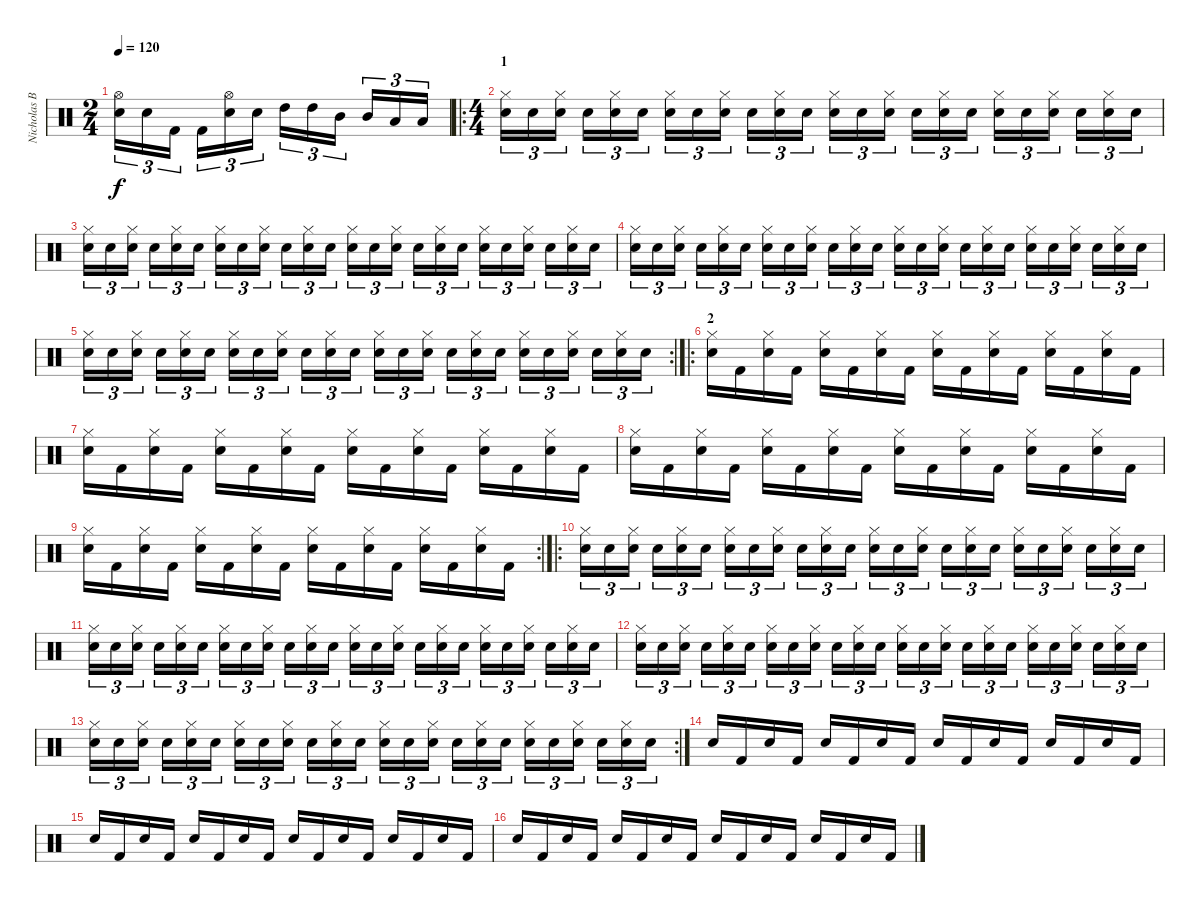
\track ("Nicholas Barker" "Nicholas B") {instrument percussion}
\staff {score}
\articulation defaults
\ts (2 4)
\tempo 120
\clef neutral
\ks c
("Snare (hit) 2" "Hi-Hat (open)").16{tu (3 2) dy f} "Snare (hit) 2".16{tu (3 2)} "Kick (hit) 2".16{tu (3 2)} "Kick (hit) 2".16{tu (3 2)} ("Snare (hit) 2" "Hi-Hat (open)").16{tu (3 2)} "Snare (hit) 2".16{tu (3 2)} "High Tom (hit)".16{tu (3 2)} "High Tom (hit)".16{tu (3 2)} "Mid Tom (hit)".16{tu (3 2)} "Mid Tom (hit)".16{tu (3 2)} "Low Tom (hit)".16{tu (3 2)} "Low Tom (hit)".16{tu (3 2)} |
\ro
\ts (4 4)
\section ("" "1")
("Snare (hit) 2" "Hi-Hat (closed)").16{tu (3 2)} "Snare (hit) 2".16{tu (3 2)} ("Snare (hit) 2" "Hi-Hat (closed)").16{tu (3 2)} "Snare (hit) 2".16{tu (3 2)} ("Snare (hit) 2" "Hi-Hat (closed)").16{tu (3 2)} "Snare (hit) 2".16{tu (3 2)} ("Snare (hit) 2" "Hi-Hat (closed)").16{tu (3 2)} "Snare (hit) 2".16{tu (3 2)} ("Snare (hit) 2" "Hi-Hat (closed)").16{tu (3 2)} "Snare (hit) 2".16{tu (3 2)} ("Snare (hit) 2" "Hi-Hat (closed)").16{tu (3 2)} "Snare (hit) 2".16{tu (3 2)} ("Snare (hit) 2" "Hi-Hat (closed)").16{tu (3 2)} "Snare (hit) 2".16{tu (3 2)} ("Snare (hit) 2" "Hi-Hat (closed)").16{tu (3 2)} "Snare (hit) 2".16{tu (3 2)} ("Snare (hit) 2" "Hi-Hat (closed)").16{tu (3 2)} "Snare (hit) 2".16{tu (3 2)} ("Snare (hit) 2" "Hi-Hat (closed)").16{tu (3 2)} "Snare (hit) 2".16{tu (3 2)} ("Snare (hit) 2" "Hi-Hat (closed)").16{tu (3 2)} "Snare (hit) 2".16{tu (3 2)} ("Snare (hit) 2" "Hi-Hat (closed)").16{tu (3 2)} "Snare (hit) 2".16{tu (3 2)} |
("Snare (hit) 2" "Hi-Hat (closed)").16{tu (3 2)} "Snare (hit) 2".16{tu (3 2)} ("Snare (hit) 2" "Hi-Hat (closed)").16{tu (3 2)} "Snare (hit) 2".16{tu (3 2)} ("Snare (hit) 2" "Hi-Hat (closed)").16{tu (3 2)} "Snare (hit) 2".16{tu (3 2)} ("Snare (hit) 2" "Hi-Hat (closed)").16{tu (3 2)} "Snare (hit) 2".16{tu (3 2)} ("Snare (hit) 2" "Hi-Hat (closed)").16{tu (3 2)} "Snare (hit) 2".16{tu (3 2)} ("Snare (hit) 2" "Hi-Hat (closed)").16{tu (3 2)} "Snare (hit) 2".16{tu (3 2)} ("Snare (hit) 2" "Hi-Hat (closed)").16{tu (3 2)} "Snare (hit) 2".16{tu (3 2)} ("Snare (hit) 2" "Hi-Hat (closed)").16{tu (3 2)} "Snare (hit) 2".16{tu (3 2)} ("Snare (hit) 2" "Hi-Hat (closed)").16{tu (3 2)} "Snare (hit) 2".16{tu (3 2)} ("Snare (hit) 2" "Hi-Hat (closed)").16{tu (3 2)} "Snare (hit) 2".16{tu (3 2)} ("Snare (hit) 2" "Hi-Hat (closed)").16{tu (3 2)} "Snare (hit) 2".16{tu (3 2)} ("Snare (hit) 2" "Hi-Hat (closed)").16{tu (3 2)} "Snare (hit) 2".16{tu (3 2)} |
("Snare (hit) 2" "Hi-Hat (closed)").16{tu (3 2)} "Snare (hit) 2".16{tu (3 2)} ("Snare (hit) 2" "Hi-Hat (closed)").16{tu (3 2)} "Snare (hit) 2".16{tu (3 2)} ("Snare (hit) 2" "Hi-Hat (closed)").16{tu (3 2)} "Snare (hit) 2".16{tu (3 2)} ("Snare (hit) 2" "Hi-Hat (closed)").16{tu (3 2)} "Snare (hit) 2".16{tu (3 2)} ("Snare (hit) 2" "Hi-Hat (closed)").16{tu (3 2)} "Snare (hit) 2".16{tu (3 2)} ("Snare (hit) 2" "Hi-Hat (closed)").16{tu (3 2)} "Snare (hit) 2".16{tu (3 2)} ("Snare (hit) 2" "Hi-Hat (closed)").16{tu (3 2)} "Snare (hit) 2".16{tu (3 2)} ("Snare (hit) 2" "Hi-Hat (closed)").16{tu (3 2)} "Snare (hit) 2".16{tu (3 2)} ("Snare (hit) 2" "Hi-Hat (closed)").16{tu (3 2)} "Snare (hit) 2".16{tu (3 2)} ("Snare (hit) 2" "Hi-Hat (closed)").16{tu (3 2)} "Snare (hit) 2".16{tu (3 2)} ("Snare (hit) 2" "Hi-Hat (closed)").16{tu (3 2)} "Snare (hit) 2".16{tu (3 2)} ("Snare (hit) 2" "Hi-Hat (closed)").16{tu (3 2)} "Snare (hit) 2".16{tu (3 2)} |
\rc 2
("Snare (hit) 2" "Hi-Hat (closed)").16{tu (3 2)} "Snare (hit) 2".16{tu (3 2)} ("Snare (hit) 2" "Hi-Hat (closed)").16{tu (3 2)} "Snare (hit) 2".16{tu (3 2)} ("Snare (hit) 2" "Hi-Hat (closed)").16{tu (3 2)} "Snare (hit) 2".16{tu (3 2)} ("Snare (hit) 2" "Hi-Hat (closed)").16{tu (3 2)} "Snare (hit) 2".16{tu (3 2)} ("Snare (hit) 2" "Hi-Hat (closed)").16{tu (3 2)} "Snare (hit) 2".16{tu (3 2)} ("Snare (hit) 2" "Hi-Hat (closed)").16{tu (3 2)} "Snare (hit) 2".16{tu (3 2)} ("Snare (hit) 2" "Hi-Hat (closed)").16{tu (3 2)} "Snare (hit) 2".16{tu (3 2)} ("Snare (hit) 2" "Hi-Hat (closed)").16{tu (3 2)} "Snare (hit) 2".16{tu (3 2)} ("Snare (hit) 2" "Hi-Hat (closed)").16{tu (3 2)} "Snare (hit) 2".16{tu (3 2)} ("Snare (hit) 2" "Hi-Hat (closed)").16{tu (3 2)} "Snare (hit) 2".16{tu (3 2)} ("Snare (hit) 2" "Hi-Hat (closed)").16{tu (3 2)} "Snare (hit) 2".16{tu (3 2)} ("Snare (hit) 2" "Hi-Hat (closed)").16{tu (3 2)} "Snare (hit) 2".16{tu (3 2)} |
\ro
\section ("" "2")
("Snare (hit) 2" "Hi-Hat (closed)").16 "Kick (hit) 2".16 ("Snare (hit) 2" "Hi-Hat (closed)").16 "Kick (hit) 2".16 ("Snare (hit) 2" "Hi-Hat (closed)").16 "Kick (hit) 2".16 ("Snare (hit) 2" "Hi-Hat (closed)").16 "Kick (hit) 2".16 ("Snare (hit) 2" "Hi-Hat (closed)").16 "Kick (hit) 2".16 ("Snare (hit) 2" "Hi-Hat (closed)").16 "Kick (hit) 2".16 ("Snare (hit) 2" "Hi-Hat (closed)").16 "Kick (hit) 2".16 ("Snare (hit) 2" "Hi-Hat (closed)").16 "Kick (hit) 2".16 |
("Snare (hit) 2" "Hi-Hat (closed)").16 "Kick (hit) 2".16 ("Snare (hit) 2" "Hi-Hat (closed)").16 "Kick (hit) 2".16 ("Snare (hit) 2" "Hi-Hat (closed)").16 "Kick (hit) 2".16 ("Snare (hit) 2" "Hi-Hat (closed)").16 "Kick (hit) 2".16 ("Snare (hit) 2" "Hi-Hat (closed)").16 "Kick (hit) 2".16 ("Snare (hit) 2" "Hi-Hat (closed)").16 "Kick (hit) 2".16 ("Snare (hit) 2" "Hi-Hat (closed)").16 "Kick (hit) 2".16 ("Snare (hit) 2" "Hi-Hat (closed)").16 "Kick (hit) 2".16 |
("Snare (hit) 2" "Hi-Hat (closed)").16 "Kick (hit) 2".16 ("Snare (hit) 2" "Hi-Hat (closed)").16 "Kick (hit) 2".16 ("Snare (hit) 2" "Hi-Hat (closed)").16 "Kick (hit) 2".16 ("Snare (hit) 2" "Hi-Hat (closed)").16 "Kick (hit) 2".16 ("Snare (hit) 2" "Hi-Hat (closed)").16 "Kick (hit) 2".16 ("Snare (hit) 2" "Hi-Hat (closed)").16 "Kick (hit) 2".16 ("Snare (hit) 2" "Hi-Hat (closed)").16 "Kick (hit) 2".16 ("Snare (hit) 2" "Hi-Hat (closed)").16 "Kick (hit) 2".16 |
\rc 2
("Snare (hit) 2" "Hi-Hat (closed)").16 "Kick (hit) 2".16 ("Snare (hit) 2" "Hi-Hat (closed)").16 "Kick (hit) 2".16 ("Snare (hit) 2" "Hi-Hat (closed)").16 "Kick (hit) 2".16 ("Snare (hit) 2" "Hi-Hat (closed)").16 "Kick (hit) 2".16 ("Snare (hit) 2" "Hi-Hat (closed)").16 "Kick (hit) 2".16 ("Snare (hit) 2" "Hi-Hat (closed)").16 "Kick (hit) 2".16 ("Snare (hit) 2" "Hi-Hat (closed)").16 "Kick (hit) 2".16 ("Snare (hit) 2" "Hi-Hat (closed)").16 "Kick (hit) 2".16 |
\ro
("Snare (hit) 2" "Hi-Hat (closed)").16{tu (3 2)} "Snare (hit) 2".16{tu (3 2)} ("Snare (hit) 2" "Hi-Hat (closed)").16{tu (3 2)} "Snare (hit) 2".16{tu (3 2)} ("Snare (hit) 2" "Hi-Hat (closed)").16{tu (3 2)} "Snare (hit) 2".16{tu (3 2)} ("Snare (hit) 2" "Hi-Hat (closed)").16{tu (3 2)} "Snare (hit) 2".16{tu (3 2)} ("Snare (hit) 2" "Hi-Hat (closed)").16{tu (3 2)} "Snare (hit) 2".16{tu (3 2)} ("Snare (hit) 2" "Hi-Hat (closed)").16{tu (3 2)} "Snare (hit) 2".16{tu (3 2)} ("Snare (hit) 2" "Hi-Hat (closed)").16{tu (3 2)} "Snare (hit) 2".16{tu (3 2)} ("Snare (hit) 2" "Hi-Hat (closed)").16{tu (3 2)} "Snare (hit) 2".16{tu (3 2)} ("Snare (hit) 2" "Hi-Hat (closed)").16{tu (3 2)} "Snare (hit) 2".16{tu (3 2)} ("Snare (hit) 2" "Hi-Hat (closed)").16{tu (3 2)} "Snare (hit) 2".16{tu (3 2)} ("Snare (hit) 2" "Hi-Hat (closed)").16{tu (3 2)} "Snare (hit) 2".16{tu (3 2)} ("Snare (hit) 2" "Hi-Hat (closed)").16{tu (3 2)} "Snare (hit) 2".16{tu (3 2)} |
("Snare (hit) 2" "Hi-Hat (closed)").16{tu (3 2)} "Snare (hit) 2".16{tu (3 2)} ("Snare (hit) 2" "Hi-Hat (closed)").16{tu (3 2)} "Snare (hit) 2".16{tu (3 2)} ("Snare (hit) 2" "Hi-Hat (closed)").16{tu (3 2)} "Snare (hit) 2".16{tu (3 2)} ("Snare (hit) 2" "Hi-Hat (closed)").16{tu (3 2)} "Snare (hit) 2".16{tu (3 2)} ("Snare (hit) 2" "Hi-Hat (closed)").16{tu (3 2)} "Snare (hit) 2".16{tu (3 2)} ("Snare (hit) 2" "Hi-Hat (closed)").16{tu (3 2)} "Snare (hit) 2".16{tu (3 2)} ("Snare (hit) 2" "Hi-Hat (closed)").16{tu (3 2)} "Snare (hit) 2".16{tu (3 2)} ("Snare (hit) 2" "Hi-Hat (closed)").16{tu (3 2)} "Snare (hit) 2".16{tu (3 2)} ("Snare (hit) 2" "Hi-Hat (closed)").16{tu (3 2)} "Snare (hit) 2".16{tu (3 2)} ("Snare (hit) 2" "Hi-Hat (closed)").16{tu (3 2)} "Snare (hit) 2".16{tu (3 2)} ("Snare (hit) 2" "Hi-Hat (closed)").16{tu (3 2)} "Snare (hit) 2".16{tu (3 2)} ("Snare (hit) 2" "Hi-Hat (closed)").16{tu (3 2)} "Snare (hit) 2".16{tu (3 2)} |
("Snare (hit) 2" "Hi-Hat (closed)").16{tu (3 2)} "Snare (hit) 2".16{tu (3 2)} ("Snare (hit) 2" "Hi-Hat (closed)").16{tu (3 2)} "Snare (hit) 2".16{tu (3 2)} ("Snare (hit) 2" "Hi-Hat (closed)").16{tu (3 2)} "Snare (hit) 2".16{tu (3 2)} ("Snare (hit) 2" "Hi-Hat (closed)").16{tu (3 2)} "Snare (hit) 2".16{tu (3 2)} ("Snare (hit) 2" "Hi-Hat (closed)").16{tu (3 2)} "Snare (hit) 2".16{tu (3 2)} ("Snare (hit) 2" "Hi-Hat (closed)").16{tu (3 2)} "Snare (hit) 2".16{tu (3 2)} ("Snare (hit) 2" "Hi-Hat (closed)").16{tu (3 2)} "Snare (hit) 2".16{tu (3 2)} ("Snare (hit) 2" "Hi-Hat (closed)").16{tu (3 2)} "Snare (hit) 2".16{tu (3 2)} ("Snare (hit) 2" "Hi-Hat (closed)").16{tu (3 2)} "Snare (hit) 2".16{tu (3 2)} ("Snare (hit) 2" "Hi-Hat (closed)").16{tu (3 2)} "Snare (hit) 2".16{tu (3 2)} ("Snare (hit) 2" "Hi-Hat (closed)").16{tu (3 2)} "Snare (hit) 2".16{tu (3 2)} ("Snare (hit) 2" "Hi-Hat (closed)").16{tu (3 2)} "Snare (hit) 2".16{tu (3 2)} |
\rc 2
("Snare (hit) 2" "Hi-Hat (closed)").16{tu (3 2)} "Snare (hit) 2".16{tu (3 2)} ("Snare (hit) 2" "Hi-Hat (closed)").16{tu (3 2)} "Snare (hit) 2".16{tu (3 2)} ("Snare (hit) 2" "Hi-Hat (closed)").16{tu (3 2)} "Snare (hit) 2".16{tu (3 2)} ("Snare (hit) 2" "Hi-Hat (closed)").16{tu (3 2)} "Snare (hit) 2".16{tu (3 2)} ("Snare (hit) 2" "Hi-Hat (closed)").16{tu (3 2)} "Snare (hit) 2".16{tu (3 2)} ("Snare (hit) 2" "Hi-Hat (closed)").16{tu (3 2)} "Snare (hit) 2".16{tu (3 2)} ("Snare (hit) 2" "Hi-Hat (closed)").16{tu (3 2)} "Snare (hit) 2".16{tu (3 2)} ("Snare (hit) 2" "Hi-Hat (closed)").16{tu (3 2)} "Snare (hit) 2".16{tu (3 2)} ("Snare (hit) 2" "Hi-Hat (closed)").16{tu (3 2)} "Snare (hit) 2".16{tu (3 2)} ("Snare (hit) 2" "Hi-Hat (closed)").16{tu (3 2)} "Snare (hit) 2".16{tu (3 2)} ("Snare (hit) 2" "Hi-Hat (closed)").16{tu (3 2)} "Snare (hit) 2".16{tu (3 2)} ("Snare (hit) 2" "Hi-Hat (closed)").16{tu (3 2)} "Snare (hit) 2".16{tu (3 2)} |
"Snare (hit) 2".16 "Kick (hit) 2".16 "Snare (hit) 2".16 "Kick (hit) 2".16 "Snare (hit) 2".16 "Kick (hit) 2".16 "Snare (hit) 2".16 "Kick (hit) 2".16 "Snare (hit) 2".16 "Kick (hit) 2".16 "Snare (hit) 2".16 "Kick (hit) 2".16 "Snare (hit) 2".16 "Kick (hit) 2".16 "Snare (hit) 2".16 "Kick (hit) 2".16 |
"Snare (hit) 2".16 "Kick (hit) 2".16 "Snare (hit) 2".16 "Kick (hit) 2".16 "Snare (hit) 2".16 "Kick (hit) 2".16 "Snare (hit) 2".16 "Kick (hit) 2".16 "Snare (hit) 2".16 "Kick (hit) 2".16 "Snare (hit) 2".16 "Kick (hit) 2".16 "Snare (hit) 2".16 "Kick (hit) 2".16 "Snare (hit) 2".16 "Kick (hit) 2".16 |
"Snare (hit) 2".16 "Kick (hit) 2".16 "Snare (hit) 2".16 "Kick (hit) 2".16 "Snare (hit) 2".16 "Kick (hit) 2".16 "Snare (hit) 2".16 "Kick (hit) 2".16 "Snare (hit) 2".16 "Kick (hit) 2".16 "Snare (hit) 2".16 "Kick (hit) 2".16 "Snare (hit) 2".16 "Kick (hit) 2".16 "Snare (hit) 2".16 "Kick (hit) 2".16
